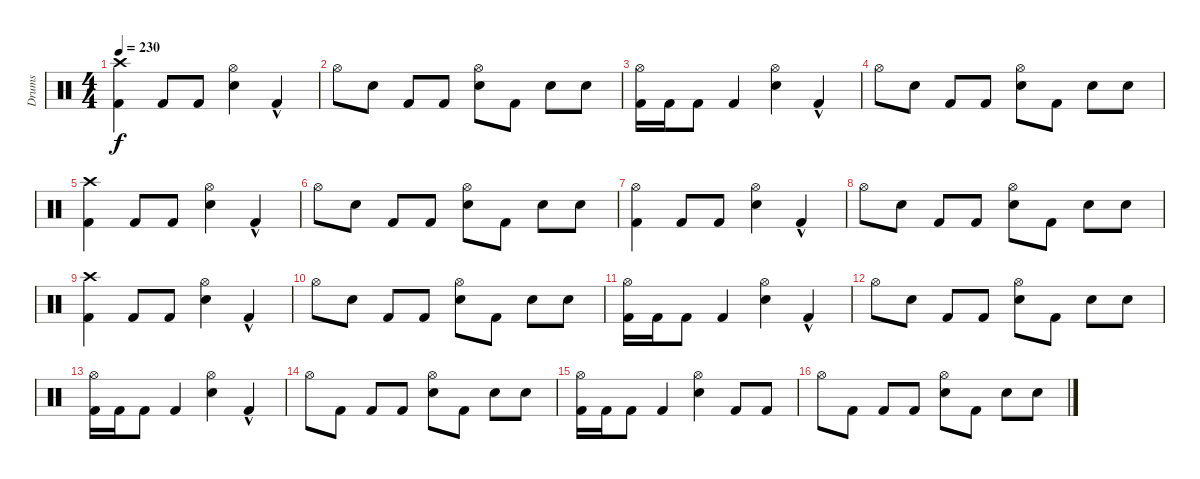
\track ("Drums" "Drums") {instrument percussion}
\staff {score}
\articulation defaults
\ts (4 4)
\tempo 230
\clef neutral
\ks c
("Crash high (hit)" "Kick (hit) 2").4{dy f} "Kick (hit) 2".8 "Kick (hit) 2".8 ("Hi-Hat (open)" "Electric Snare (hit)").4 "Kick (hit) 2"{hac}.4 |
"Hi-Hat (open)".8 "Electric Snare (hit)".8 "Kick (hit) 2".8 "Kick (hit) 2".8 ("Hi-Hat (open)" "Electric Snare (hit)").8 "Kick (hit) 2".8 "Electric Snare (hit)".8 "Electric Snare (hit)".8 |
("Hi-Hat (open)" "Kick (hit) 2").16 "Kick (hit) 2".16 "Kick (hit) 2".8 "Kick (hit) 2".4 ("Hi-Hat (open)" "Electric Snare (hit)").4 "Kick (hit) 2"{hac}.4 |
"Hi-Hat (open)".8 "Electric Snare (hit)".8 "Kick (hit) 2".8 "Kick (hit) 2".8 ("Hi-Hat (open)" "Electric Snare (hit)").8 "Kick (hit) 2".8 "Electric Snare (hit)".8 "Electric Snare (hit)".8 |
("Crash high (hit)" "Kick (hit) 2").4 "Kick (hit) 2".8 "Kick (hit) 2".8 ("Hi-Hat (open)" "Electric Snare (hit)").4 "Kick (hit) 2"{hac}.4 |
"Hi-Hat (open)".8 "Electric Snare (hit)".8 "Kick (hit) 2".8 "Kick (hit) 2".8 ("Hi-Hat (open)" "Electric Snare (hit)").8 "Kick (hit) 2".8 "Electric Snare (hit)".8 "Electric Snare (hit)".8 |
("Hi-Hat (open)" "Kick (hit) 2").4 "Kick (hit) 2".8 "Kick (hit) 2".8 ("Hi-Hat (open)" "Electric Snare (hit)").4 "Kick (hit) 2"{hac}.4 |
"Hi-Hat (open)".8 "Electric Snare (hit)".8 "Kick (hit) 2".8 "Kick (hit) 2".8 ("Hi-Hat (open)" "Electric Snare (hit)").8 "Kick (hit) 2".8 "Electric Snare (hit)".8 "Electric Snare (hit)".8 |
("Crash high (hit)" "Kick (hit) 2").4 "Kick (hit) 2".8 "Kick (hit) 2".8 ("Hi-Hat (open)" "Electric Snare (hit)").4 "Kick (hit) 2"{hac}.4 |
"Hi-Hat (open)".8 "Electric Snare (hit)".8 "Kick (hit) 2".8 "Kick (hit) 2".8 ("Hi-Hat (open)" "Electric Snare (hit)").8 "Kick (hit) 2".8 "Electric Snare (hit)".8 "Electric Snare (hit)".8 |
("Hi-Hat (open)" "Kick (hit) 2").16 "Kick (hit) 2".16 "Kick (hit) 2".8 "Kick (hit) 2".4 ("Hi-Hat (open)" "Electric Snare (hit)").4 "Kick (hit) 2"{hac}.4 |
"Hi-Hat (open)".8 "Electric Snare (hit)".8 "Kick (hit) 2".8 "Kick (hit) 2".8 ("Hi-Hat (open)" "Electric Snare (hit)").8 "Kick (hit) 2".8 "Electric Snare (hit)".8 "Electric Snare (hit)".8 |
("Hi-Hat (open)" "Kick (hit) 2").16 "Kick (hit) 2".16 "Kick (hit) 2".8 "Kick (hit) 2".4 ("Hi-Hat (open)" "Electric Snare (hit)").4 "Kick (hit) 2"{hac}.4 |
"Hi-Hat (open)".8 "Kick (hit) 2".8 "Kick (hit) 2".8 "Kick (hit) 2".8 ("Hi-Hat (open)" "Electric Snare (hit)").8 "Kick (hit) 2".8 "Electric Snare (hit)".8 "Electric Snare (hit)".8 |
("Hi-Hat (open)" "Kick (hit) 2").16 "Kick (hit) 2".16 "Kick (hit) 2".8 "Kick (hit) 2".4 ("Hi-Hat (open)" "Electric Snare (hit)").4 "Kick (hit) 2".8 "Kick (hit) 2".8 |
"Hi-Hat (open)".8 "Kick (hit) 2".8 "Kick (hit) 2".8 "Kick (hit) 2".8 ("Hi-Hat (open)" "Electric Snare (hit)").8 "Kick (hit) 2".8 "Electric Snare (hit)".8 "Electric Snare (hit)".8
